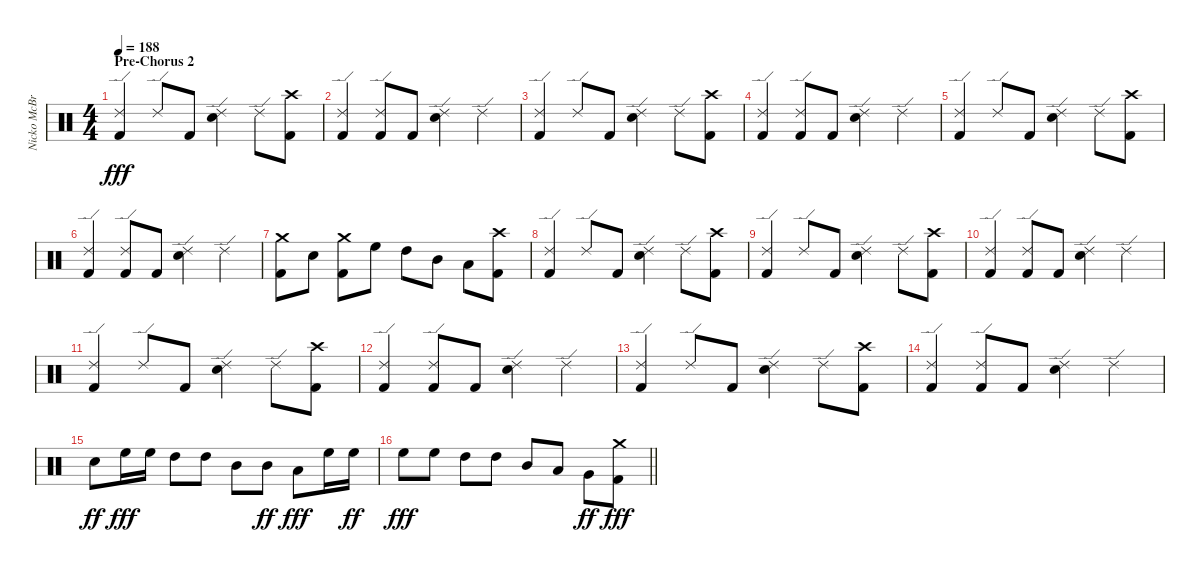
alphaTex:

\track ("Nicko McBrain" "Nicko McBr") {instrument percussion}
\staff {score}
\articulation defaults
\ts (4 4)
\section ("" "Pre-Chorus 2")
\tempo 188
\clef neutral
\ks c
("Ride (edge) 2" "Kick (hit) 2").4{dy fff} "Ride (edge) 2".8 "Kick (hit) 2".8 ("Ride (edge) 2" "Electric Snare (hit)").4 "Ride (edge) 2".8 ("Crash high (hit)" "Kick (hit) 2").8 |
("Ride (edge) 2" "Kick (hit) 2").4 ("Ride (edge) 2" "Kick (hit) 2").8 "Kick (hit) 2".8 ("Ride (edge) 2" "Electric Snare (hit)").4 "Ride (edge) 2".4 |
("Ride (edge) 2" "Kick (hit) 2").4 "Ride (edge) 2".8 "Kick (hit) 2".8 ("Ride (edge) 2" "Electric Snare (hit)").4 "Ride (edge) 2".8 ("Crash high (hit)" "Kick (hit) 2").8 |
("Ride (edge) 2" "Kick (hit) 2").4 ("Ride (edge) 2" "Kick (hit) 2").8 "Kick (hit) 2".8 ("Ride (edge) 2" "Electric Snare (hit)").4 "Ride (edge) 2".4 |
("Ride (edge) 2" "Kick (hit) 2").4 "Ride (edge) 2".8 "Kick (hit) 2".8 ("Ride (edge) 2" "Electric Snare (hit)").4 "Ride (edge) 2".8 ("Crash high (hit)" "Kick (hit) 2").8 |
("Ride (edge) 2" "Kick (hit) 2").4 ("Ride (edge) 2" "Kick (hit) 2").8 "Kick (hit) 2".8 ("Ride (edge) 2" "Electric Snare (hit)").4 "Ride (edge) 2".4 |
("Crash medium (hit)" "Kick (hit) 2").8 "Electric Snare (hit)".8 ("Crash medium (hit)" "Kick (hit) 2").8 "High Floor Tom (hit)".8 "High Tom (hit)".8 "Mid Tom (hit)".8 "Low Tom (hit)".8 ("Crash high (hit)" "Kick (hit) 2").8 |
("Ride (edge) 2" "Kick (hit) 2").4 "Ride (edge) 2".8 "Kick (hit) 2".8 ("Ride (edge) 2" "Electric Snare (hit)").4 "Ride (edge) 2".8 ("Crash high (hit)" "Kick (hit) 2").8 |
("Ride (edge) 2" "Kick (hit) 2").4 "Ride (edge) 2".8 "Kick (hit) 2".8 ("Ride (edge) 2" "Electric Snare (hit)").4 "Ride (edge) 2".8 ("Crash high (hit)" "Kick (hit) 2").8 |
("Ride (edge) 2" "Kick (hit) 2").4 ("Ride (edge) 2" "Kick (hit) 2").8 "Kick (hit) 2".8 ("Ride (edge) 2" "Electric Snare (hit)").4 "Ride (edge) 2".4 |
("Ride (edge) 2" "Kick (hit) 2").4 "Ride (edge) 2".8 "Kick (hit) 2".8 ("Ride (edge) 2" "Electric Snare (hit)").4 "Ride (edge) 2".8 ("Crash high (hit)" "Kick (hit) 2").8 |
("Ride (edge) 2" "Kick (hit) 2").4 ("Ride (edge) 2" "Kick (hit) 2").8 "Kick (hit) 2".8 ("Ride (edge) 2" "Electric Snare (hit)").4 "Ride (edge) 2".4 |
("Ride (edge) 2" "Kick (hit) 2").4 "Ride (edge) 2".8 "Kick (hit) 2".8 ("Ride (edge) 2" "Electric Snare (hit)").4 "Ride (edge) 2".8 ("Crash high (hit)" "Kick (hit) 2").8 |
("Ride (edge) 2" "Kick (hit) 2").4 ("Ride (edge) 2" "Kick (hit) 2").8 "Kick (hit) 2".8 ("Ride (edge) 2" "Electric Snare (hit)").4 "Ride (edge) 2".4 |
"Electric Snare (hit)".8{dy ff} "High Floor Tom (hit)".16{dy fff} "High Floor Tom (hit)".16 "High Tom (hit)".8 "High Tom (hit)".8 "Mid Tom (hit)".8 "Mid Tom (hit)".8{dy ff} "Low Tom (hit)".8{dy fff} "High Floor Tom (hit)".16 "High Floor Tom (hit)".16{dy ff} |
\barLineRight lightlight "High Floor Tom (hit)".8{dy fff} "High Floor Tom (hit)".8 "High Tom (hit)".8 "High Tom (hit)".8 "Mid Tom (hit)".8 "Low Tom (hit)".8 "Very Low Tom (hit)".8{dy ff}
("Crash medium (hit)" "Kick (hit) 2").8{dy fff}
